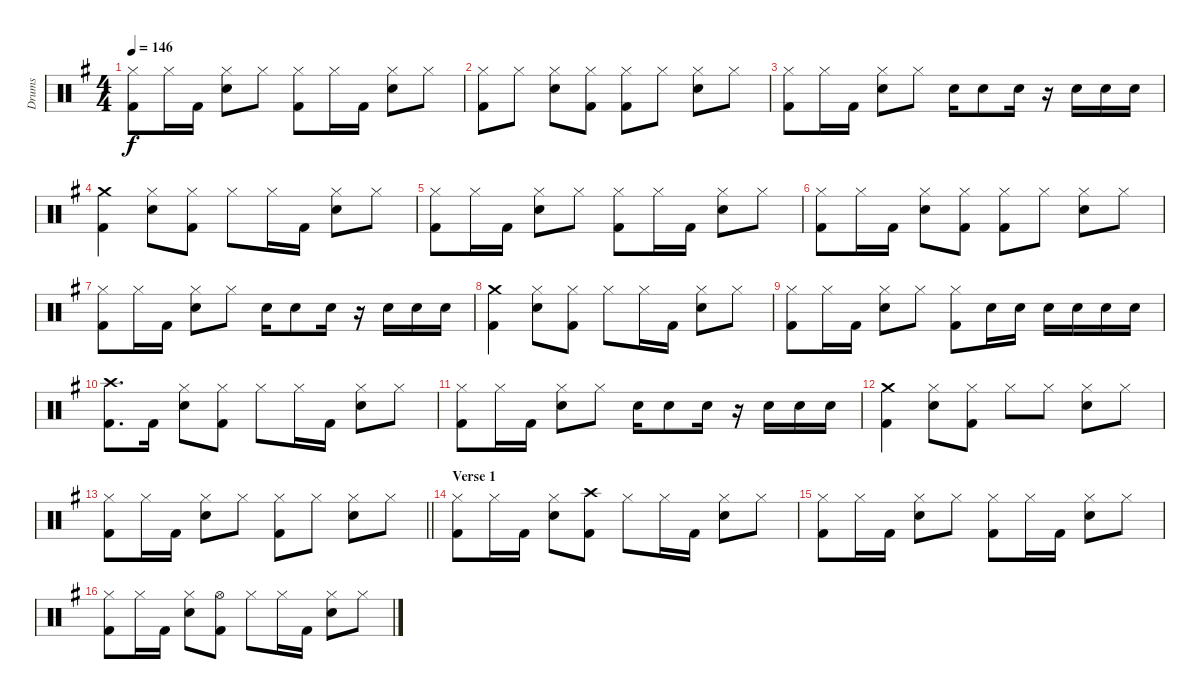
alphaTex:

\track ("Drums" "Drums") {instrument percussion}
\staff {score}
\articulation defaults
\ts (4 4)
\tempo 146
\clef neutral
\ks g
("Kick (hit) 2" "Hi-Hat (closed)").8{dy f} "Hi-Hat (closed)".16 "Kick (hit) 2".16 ("Snare (hit) 2" "Hi-Hat (closed)").8 "Hi-Hat (closed)".8 ("Kick (hit) 2" "Hi-Hat (closed)").8 "Hi-Hat (closed)".16 "Kick (hit) 2".16 ("Snare (hit) 2" "Hi-Hat (closed)").8 "Hi-Hat (closed)".8 |
("Kick (hit) 2" "Hi-Hat (closed)").8 "Hi-Hat (closed)".8 ("Snare (hit) 2" "Hi-Hat (closed)").8 ("Kick (hit) 2" "Hi-Hat (closed)").8 ("Kick (hit) 2" "Hi-Hat (closed)").8 "Hi-Hat (closed)".8 ("Snare (hit) 2" "Hi-Hat (closed)").8 "Hi-Hat (closed)".8 |
("Kick (hit) 2" "Hi-Hat (closed)").8 "Hi-Hat (closed)".16 "Kick (hit) 2".16 ("Snare (hit) 2" "Hi-Hat (closed)").8 "Hi-Hat (closed)".8 "Snare (hit) 2".16 "Snare (hit) 2".8 "Snare (hit) 2".16 r.16 "Snare (hit) 2".16 "Snare (hit) 2".16 "Snare (hit) 2".16 |
("Kick (hit) 2" "Crash medium (hit)").4 ("Snare (hit) 2" "Hi-Hat (closed)").8 ("Kick (hit) 2" "Hi-Hat (closed)").8 "Hi-Hat (closed)".8 "Hi-Hat (closed)".16 "Kick (hit) 2".16 ("Snare (hit) 2" "Hi-Hat (closed)").8 "Hi-Hat (closed)".8 |
("Kick (hit) 2" "Hi-Hat (closed)").8 "Hi-Hat (closed)".16 "Kick (hit) 2".16 ("Snare (hit) 2" "Hi-Hat (closed)").8 "Hi-Hat (closed)".8 ("Kick (hit) 2" "Hi-Hat (closed)").8 "Hi-Hat (closed)".16 "Kick (hit) 2".16 ("Snare (hit) 2" "Hi-Hat (closed)").8 "Hi-Hat (closed)".8 |
("Kick (hit) 2" "Hi-Hat (closed)").8 "Hi-Hat (closed)".16 "Kick (hit) 2".16 ("Snare (hit) 2" "Hi-Hat (closed)").8 ("Kick (hit) 2" "Hi-Hat (closed)").8 ("Kick (hit) 2" "Hi-Hat (closed)").8 "Hi-Hat (closed)".8 ("Snare (hit) 2" "Hi-Hat (closed)").8 "Hi-Hat (closed)".8 |
("Kick (hit) 2" "Hi-Hat (closed)").8 "Hi-Hat (closed)".16 "Kick (hit) 2".16 ("Snare (hit) 2" "Hi-Hat (closed)").8 "Hi-Hat (closed)".8 "Snare (hit) 2".16 "Snare (hit) 2".8 "Snare (hit) 2".16 r.16 "Snare (hit) 2".16 "Snare (hit) 2".16 "Snare (hit) 2".16 |
("Kick (hit) 2" "Crash medium (hit)").4 ("Snare (hit) 2" "Hi-Hat (closed)").8 ("Kick (hit) 2" "Hi-Hat (closed)").8 "Hi-Hat (closed)".8 "Hi-Hat (closed)".16 "Kick (hit) 2".16 ("Snare (hit) 2" "Hi-Hat (closed)").8 "Hi-Hat (closed)".8 |
("Kick (hit) 2" "Hi-Hat (closed)").8 "Hi-Hat (closed)".16 "Kick (hit) 2".16 ("Snare (hit) 2" "Hi-Hat (closed)").8 "Hi-Hat (closed)".8 ("Kick (hit) 2" "Hi-Hat (closed)").8 "Snare (hit) 2".16 "Snare (hit) 2".16 "Snare (hit) 2".16 "Snare (hit) 2".16 "Snare (hit) 2".16 "Snare (hit) 2".16 |
("Kick (hit) 2" "Crash high (hit)").8{d} "Kick (hit) 2".16 ("Snare (hit) 2" "Hi-Hat (closed)").8 ("Kick (hit) 2" "Hi-Hat (closed)").8 "Hi-Hat (closed)".8 "Hi-Hat (closed)".16 "Kick (hit) 2".16 ("Snare (hit) 2" "Hi-Hat (closed)").8 "Hi-Hat (closed)".8 |
("Kick (hit) 2" "Hi-Hat (closed)").8 "Hi-Hat (closed)".16 "Kick (hit) 2".16 ("Snare (hit) 2" "Hi-Hat (closed)").8 "Hi-Hat (closed)".8 "Snare (hit) 2".16 "Snare (hit) 2".8 "Snare (hit) 2".16 r.16 "Snare (hit) 2".16 "Snare (hit) 2".16 "Snare (hit) 2".16 |
("Kick (hit) 2" "Crash medium (hit)").4 ("Snare (hit) 2" "Hi-Hat (closed)").8 ("Kick (hit) 2" "Hi-Hat (closed)").8 "Hi-Hat (closed)".8 "Hi-Hat (closed)".8 ("Snare (hit) 2" "Hi-Hat (closed)").8 "Hi-Hat (closed)".8 |
\barLineRight lightlight
("Kick (hit) 2" "Hi-Hat (closed)").8 "Hi-Hat (closed)".16 "Kick (hit) 2".16 ("Snare (hit) 2" "Hi-Hat (closed)").8 "Hi-Hat (closed)".8 ("Kick (hit) 2" "Hi-Hat (closed)").8 "Hi-Hat (closed)".8 ("Snare (hit) 2" "Hi-Hat (closed)").8 "Hi-Hat (closed)".8 |
\section ("" "Verse 1")
("Kick (hit) 2" "Hi-Hat (closed)").8 "Hi-Hat (closed)".16 "Kick (hit) 2".16 ("Snare (hit) 2" "Hi-Hat (closed)").8 ("Kick (hit) 2" "Crash high (hit)").8 "Hi-Hat (closed)".8 "Hi-Hat (closed)".16 "Kick (hit) 2".16 ("Snare (hit) 2" "Hi-Hat (closed)").8 "Hi-Hat (closed)".8 |
("Kick (hit) 2" "Hi-Hat (closed)").8 "Hi-Hat (closed)".16 "Kick (hit) 2".16 ("Snare (hit) 2" "Hi-Hat (closed)").8 "Hi-Hat (closed)".8 ("Kick (hit) 2" "Hi-Hat (closed)").8 "Hi-Hat (closed)".16 "Kick (hit) 2".16 ("Snare (hit) 2" "Hi-Hat (closed)").8 "Hi-Hat (closed)".8 |
("Kick (hit) 2" "Hi-Hat (closed)").8 "Hi-Hat (closed)".16 "Kick (hit) 2".16 ("Snare (hit) 2" "Hi-Hat (closed)").8 ("Kick (hit) 2" "Hi-Hat (open)").8 "Hi-Hat (closed)".8 "Hi-Hat (closed)".16 "Kick (hit) 2".16 ("Snare (hit) 2" "Hi-Hat (closed)").8 "Hi-Hat (closed)".8
